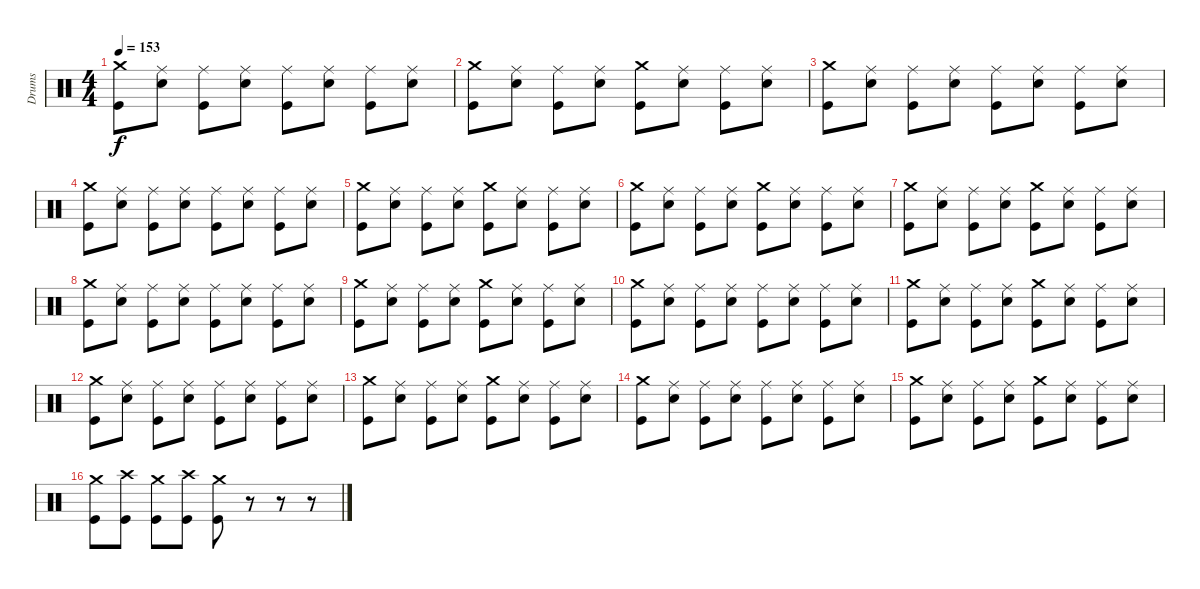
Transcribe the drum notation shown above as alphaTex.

\track ("Drums" "Drums") {instrument percussion}
\staff {score}
\articulation defaults
\ts (4 4)
\tempo 153
\clef neutral
\ks c
("Crash medium (hit)" "Kick (hit)").8{dy f} ("Ride (middle)" "Snare (hit) 2").8 ("Ride (middle)" "Kick (hit)").8 ("Ride (middle)" "Snare (hit) 2").8 ("Ride (middle)" "Kick (hit)").8 ("Ride (middle)" "Snare (hit) 2").8 ("Ride (middle)" "Kick (hit)").8 ("Ride (middle)" "Snare (hit) 2").8 |
("Crash medium (hit)" "Kick (hit)").8 ("Ride (middle)" "Snare (hit) 2").8 ("Ride (middle)" "Kick (hit)").8 ("Ride (middle)" "Snare (hit) 2").8 ("Crash medium (hit)" "Kick (hit)").8 ("Ride (middle)" "Snare (hit) 2").8 ("Ride (middle)" "Kick (hit)").8 ("Ride (middle)" "Snare (hit) 2").8 |
("Crash medium (hit)" "Kick (hit)").8 ("Ride (middle)" "Snare (hit) 2").8 ("Ride (middle)" "Kick (hit)").8 ("Ride (middle)" "Snare (hit) 2").8 ("Ride (middle)" "Kick (hit)").8 ("Ride (middle)" "Snare (hit) 2").8 ("Ride (middle)" "Kick (hit)").8 ("Ride (middle)" "Snare (hit) 2").8 |
("Crash medium (hit)" "Kick (hit)").8 ("Ride (middle)" "Snare (hit) 2").8 ("Ride (middle)" "Kick (hit)").8 ("Ride (middle)" "Snare (hit) 2").8 ("Ride (middle)" "Kick (hit)").8 ("Ride (middle)" "Snare (hit) 2").8 ("Ride (middle)" "Kick (hit)").8 ("Ride (middle)" "Snare (hit) 2").8 |
("Crash medium (hit)" "Kick (hit)").8 ("Ride (middle)" "Snare (hit) 2").8 ("Ride (middle)" "Kick (hit)").8 ("Ride (middle)" "Snare (hit) 2").8 ("Crash medium (hit)" "Kick (hit)").8 ("Ride (middle)" "Snare (hit) 2").8 ("Ride (middle)" "Kick (hit)").8 ("Ride (middle)" "Snare (hit) 2").8 |
("Crash medium (hit)" "Kick (hit)").8 ("Ride (middle)" "Snare (hit) 2").8 ("Ride (middle)" "Kick (hit)").8 ("Ride (middle)" "Snare (hit) 2").8 ("Crash medium (hit)" "Kick (hit)").8 ("Ride (middle)" "Snare (hit) 2").8 ("Ride (middle)" "Kick (hit)").8 ("Ride (middle)" "Snare (hit) 2").8 |
("Crash medium (hit)" "Kick (hit)").8 ("Ride (middle)" "Snare (hit) 2").8 ("Ride (middle)" "Kick (hit)").8 ("Ride (middle)" "Snare (hit) 2").8 ("Crash medium (hit)" "Kick (hit)").8 ("Ride (middle)" "Snare (hit) 2").8 ("Ride (middle)" "Kick (hit)").8 ("Ride (middle)" "Snare (hit) 2").8 |
("Crash medium (hit)" "Kick (hit)").8 ("Ride (middle)" "Snare (hit) 2").8 ("Ride (middle)" "Kick (hit)").8 ("Ride (middle)" "Snare (hit) 2").8 ("Ride (middle)" "Kick (hit)").8 ("Ride (middle)" "Snare (hit) 2").8 ("Ride (middle)" "Kick (hit)").8 ("Ride (middle)" "Snare (hit) 2").8 |
("Crash medium (hit)" "Kick (hit)").8 ("Ride (middle)" "Snare (hit) 2").8 ("Ride (middle)" "Kick (hit)").8 ("Ride (middle)" "Snare (hit) 2").8 ("Crash medium (hit)" "Kick (hit)").8 ("Ride (middle)" "Snare (hit) 2").8 ("Ride (middle)" "Kick (hit)").8 ("Ride (middle)" "Snare (hit) 2").8 |
("Crash medium (hit)" "Kick (hit)").8 ("Ride (middle)" "Snare (hit) 2").8 ("Ride (middle)" "Kick (hit)").8 ("Ride (middle)" "Snare (hit) 2").8 ("Ride (middle)" "Kick (hit)").8 ("Ride (middle)" "Snare (hit) 2").8 ("Ride (middle)" "Kick (hit)").8 ("Ride (middle)" "Snare (hit) 2").8 |
("Crash medium (hit)" "Kick (hit)").8 ("Ride (middle)" "Snare (hit) 2").8 ("Ride (middle)" "Kick (hit)").8 ("Ride (middle)" "Snare (hit) 2").8 ("Crash medium (hit)" "Kick (hit)").8 ("Ride (middle)" "Snare (hit) 2").8 ("Ride (middle)" "Kick (hit)").8 ("Ride (middle)" "Snare (hit) 2").8 |
("Crash medium (hit)" "Kick (hit)").8 ("Ride (middle)" "Snare (hit) 2").8 ("Ride (middle)" "Kick (hit)").8 ("Ride (middle)" "Snare (hit) 2").8 ("Ride (middle)" "Kick (hit)").8 ("Ride (middle)" "Snare (hit) 2").8 ("Ride (middle)" "Kick (hit)").8 ("Ride (middle)" "Snare (hit) 2").8 |
("Crash medium (hit)" "Kick (hit)").8 ("Ride (middle)" "Snare (hit) 2").8 ("Ride (middle)" "Kick (hit)").8 ("Ride (middle)" "Snare (hit) 2").8 ("Crash medium (hit)" "Kick (hit)").8 ("Ride (middle)" "Snare (hit) 2").8 ("Ride (middle)" "Kick (hit)").8 ("Ride (middle)" "Snare (hit) 2").8 |
("Crash medium (hit)" "Kick (hit)").8 ("Ride (middle)" "Snare (hit) 2").8 ("Ride (middle)" "Kick (hit)").8 ("Ride (middle)" "Snare (hit) 2").8 ("Ride (middle)" "Kick (hit)").8 ("Ride (middle)" "Snare (hit) 2").8 ("Ride (middle)" "Kick (hit)").8 ("Ride (middle)" "Snare (hit) 2").8 |
("Crash medium (hit)" "Kick (hit)").8 ("Ride (middle)" "Snare (hit) 2").8 ("Ride (middle)" "Kick (hit)").8 ("Ride (middle)" "Snare (hit) 2").8 ("Crash medium (hit)" "Kick (hit)").8 ("Ride (middle)" "Snare (hit) 2").8 ("Ride (middle)" "Kick (hit)").8 ("Ride (middle)" "Snare (hit) 2").8 |
("Crash medium (hit)" "Kick (hit)").8 ("Crash high (hit)" "Kick (hit)").8 ("Crash medium (hit)" "Kick (hit)").8 ("Crash high (hit)" "Kick (hit)").8 ("Crash medium (hit)" "Kick (hit)").8 r.8 r.8 r.8
